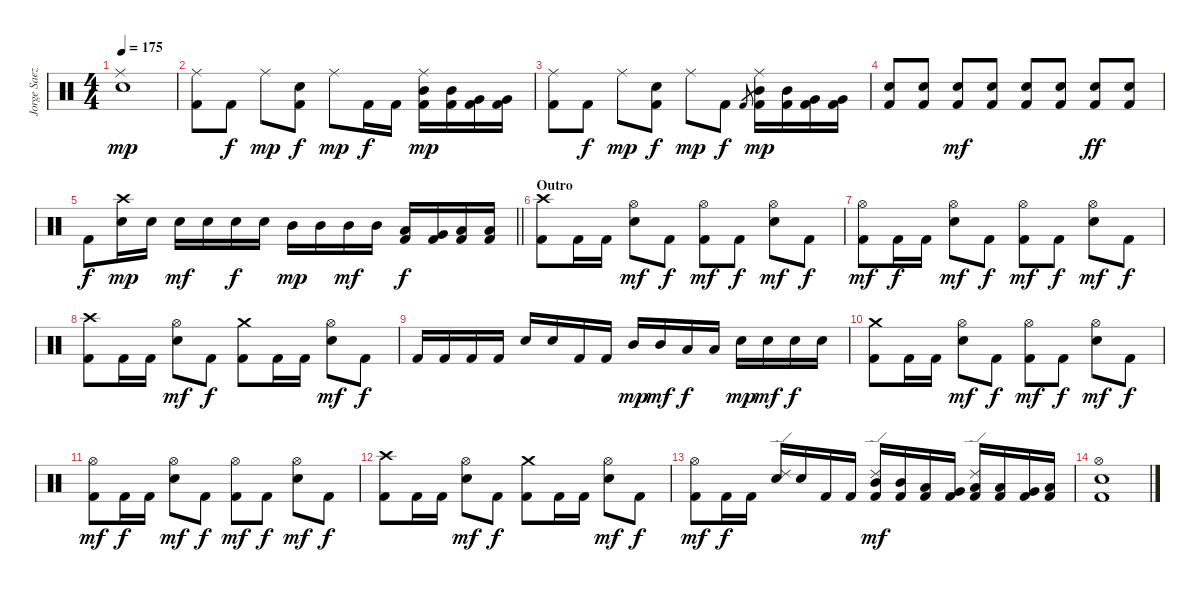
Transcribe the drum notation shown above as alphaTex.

\track ("Jorge Saez, Drums" "Jorge Saez") {instrument percussion}
\staff
\articulation defaults
\ts (4 4)
\tempo 175
\clef neutral
\ks c
("Electric Snare (hit)" "Ride (middle)").1{dy mp} |
("Kick (hit) 2" "Ride (middle)").8 "Kick (hit) 2".8{dy f} "Ride (middle)".8{dy mp} ("Kick (hit) 2" "Electric Snare (hit)").8{dy f} "Ride (middle)".8{dy mp} "Kick (hit) 2".16{dy f} "Kick (hit) 2".16 ("Kick (hit) 2" "Mid Tom (hit)" "Ride (middle)").16{dy mp} ("Kick (hit) 2" "Mid Tom (hit)").16 ("Kick (hit) 2" "Very Low Tom (hit)").16 ("Kick (hit) 2" "Very Low Tom (hit)").16 |
("Kick (hit) 2" "Ride (middle)").8 "Kick (hit) 2".8{dy f} "Ride (middle)".8{dy mp} ("Kick (hit) 2" "Electric Snare (hit)").8{dy f} "Ride (middle)".8{dy mp} "Kick (hit) 2".8{dy f} "Kick (hit) 2".8{gr} ("Kick (hit) 2" "Mid Tom (hit)" "Ride (middle)").16{dy mp} ("Kick (hit) 2" "Mid Tom (hit)").16 ("Kick (hit) 2" "Very Low Tom (hit)").16 ("Kick (hit) 2" "Very Low Tom (hit)").16 |
("Kick (hit) 2" "Electric Snare (hit)").8 ("Kick (hit) 2" "Electric Snare (hit)").8 ("Kick (hit) 2" "Electric Snare (hit)").8{dy mf} ("Kick (hit) 2" "Electric Snare (hit)").8 ("Kick (hit) 2" "Electric Snare (hit)").8 ("Kick (hit) 2" "Electric Snare (hit)").8 ("Kick (hit) 2" "Electric Snare (hit)").8{dy ff} ("Kick (hit) 2" "Electric Snare (hit)").8 |
\barLineRight lightlight "Kick (hit) 2".8{dy f}
("Electric Snare (hit)" "Crash high (hit)").16{dy mp} "Electric Snare (hit)".16 "Electric Snare (hit)".16{dy mf} "Electric Snare (hit)".16 "Electric Snare (hit)".16{dy f} "Electric Snare (hit)".16 "Mid Tom (hit)".16{dy mp} "Mid Tom (hit)".16 "Mid Tom (hit)".16{dy mf} "Mid Tom (hit)".16 ("Kick (hit) 2" "Low Tom (hit)").16{dy f} ("Kick (hit) 2" "Very Low Tom (hit)").16 ("Kick (hit) 2" "Low Floor Tom (hit)").16 ("Kick (hit) 2" "Low Floor Tom (hit)").16 |
\section ("" "Outro")
("Kick (hit) 2" "Crash high (hit)").8 "Kick (hit) 2".16 "Kick (hit) 2".16 ("Electric Snare (hit)" "Hi-Hat (open)").8{dy mf} "Kick (hit) 2".8{dy f} ("Kick (hit) 2" "Hi-Hat (open)").8{dy mf} "Kick (hit) 2".8{dy f} ("Electric Snare (hit)" "Hi-Hat (open)").8{dy mf} "Kick (hit) 2".8{dy f} |
("Kick (hit) 2" "Hi-Hat (open)").8{dy mf} "Kick (hit) 2".16{dy f} "Kick (hit) 2".16 ("Electric Snare (hit)" "Hi-Hat (open)").8{dy mf} "Kick (hit) 2".8{dy f} ("Kick (hit) 2" "Hi-Hat (open)").8{dy mf} "Kick (hit) 2".8{dy f} ("Electric Snare (hit)" "Hi-Hat (open)").8{dy mf} "Kick (hit) 2".8{dy f} |
("Kick (hit) 2" "Crash high (hit)").8 "Kick (hit) 2".16 "Kick (hit) 2".16 ("Electric Snare (hit)" "Hi-Hat (open)").8{dy mf} "Kick (hit) 2".8{dy f} ("Kick (hit) 2" "Crash medium (hit)").8 "Kick (hit) 2".16 "Kick (hit) 2".16 ("Electric Snare (hit)" "Hi-Hat (open)").8{dy mf} "Kick (hit) 2".8{dy f} |
"Kick (hit) 2".16 "Kick (hit) 2".16 "Kick (hit) 2".16 "Kick (hit) 2".16 "Electric Snare (hit)".16 "Electric Snare (hit)".16 "Kick (hit) 2".16 "Kick (hit) 2".16 "Mid Tom (hit)".16{dy mp} "Mid Tom (hit)".16{dy mf} "Low Tom (hit)".16{dy f} "Low Tom (hit)".16 "Electric Snare (hit)".16{dy mp} "Electric Snare (hit)".16{dy mf} "Electric Snare (hit)".16{dy f} "Electric Snare (hit)".16 |
("Kick (hit) 2" "Crash medium (hit)").8 "Kick (hit) 2".16 "Kick (hit) 2".16 ("Electric Snare (hit)" "Hi-Hat (open)").8{dy mf} "Kick (hit) 2".8{dy f} ("Kick (hit) 2" "Hi-Hat (open)").8{dy mf} "Kick (hit) 2".8{dy f} ("Electric Snare (hit)" "Hi-Hat (open)").8{dy mf} "Kick (hit) 2".8{dy f} |
("Kick (hit) 2" "Hi-Hat (open)").8{dy mf} "Kick (hit) 2".16{dy f} "Kick (hit) 2".16 ("Electric Snare (hit)" "Hi-Hat (open)").8{dy mf} "Kick (hit) 2".8{dy f} ("Kick (hit) 2" "Hi-Hat (open)").8{dy mf} "Kick (hit) 2".8{dy f} ("Electric Snare (hit)" "Hi-Hat (open)").8{dy mf} "Kick (hit) 2".8{dy f} |
("Kick (hit) 2" "Crash high (hit)").8 "Kick (hit) 2".16 "Kick (hit) 2".16 ("Electric Snare (hit)" "Hi-Hat (open)").8{dy mf} "Kick (hit) 2".8{dy f} ("Kick (hit) 2" "Crash medium (hit)").8 "Kick (hit) 2".16 "Kick (hit) 2".16 ("Electric Snare (hit)" "Hi-Hat (open)").8{dy mf} "Kick (hit) 2".8{dy f} |
("Kick (hit) 2" "Hi-Hat (open)").8{dy mf} "Kick (hit) 2".16{dy f} "Kick (hit) 2".16 ("Electric Snare (hit)" "Ride (edge) 2").16 "Electric Snare (hit)".16 "Kick (hit) 2".16 "Kick (hit) 2".16 ("Kick (hit) 2" "Mid Tom (hit)" "Ride (edge) 2").16{dy mf} ("Kick (hit) 2" "Mid Tom (hit)").16 ("Kick (hit) 2" "Low Tom (hit)").16 ("Kick (hit) 2" "Very Low Tom (hit)").16 ("Kick (hit) 2" "Low Tom (hit)" "Ride (edge) 2").16 ("Kick (hit) 2" "Low Tom (hit)").16 ("Kick (hit) 2" "Very Low Tom (hit)").16 ("Kick (hit) 2" "Low Floor Tom (hit)").16 |
("Kick (hit) 2" "Electric Snare (hit)" "Hi-Hat (open)").1
